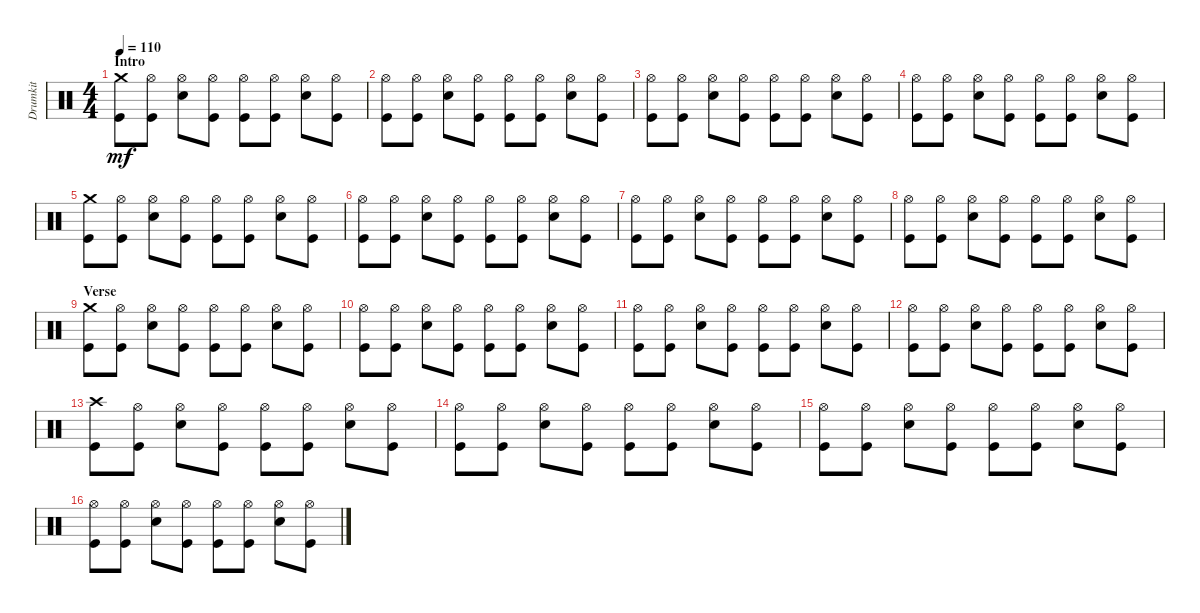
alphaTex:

\track ("Drumkit" "Drumkit") {instrument percussion}
\staff {score}
\articulation defaults
\ts (4 4)
\section ("" "Intro")
\tempo 110
\clef neutral
\ks c
("Kick (hit)" "Crash medium (hit)").8{dy mf} ("Kick (hit)" "Hi-Hat (open)").8 ("Hi-Hat (open)" "Snare (hit) 2").8 ("Kick (hit)" "Hi-Hat (open)").8 ("Kick (hit)" "Hi-Hat (open)").8 ("Kick (hit)" "Hi-Hat (open)").8 ("Hi-Hat (open)" "Snare (hit) 2").8 ("Kick (hit)" "Hi-Hat (open)").8 |
("Kick (hit)" "Hi-Hat (open)").8 ("Kick (hit)" "Hi-Hat (open)").8 ("Hi-Hat (open)" "Snare (hit) 2").8 ("Kick (hit)" "Hi-Hat (open)").8 ("Kick (hit)" "Hi-Hat (open)").8 ("Kick (hit)" "Hi-Hat (open)").8 ("Hi-Hat (open)" "Snare (hit) 2").8 ("Kick (hit)" "Hi-Hat (open)").8 |
("Kick (hit)" "Hi-Hat (open)").8 ("Kick (hit)" "Hi-Hat (open)").8 ("Hi-Hat (open)" "Snare (hit) 2").8 ("Kick (hit)" "Hi-Hat (open)").8 ("Kick (hit)" "Hi-Hat (open)").8 ("Kick (hit)" "Hi-Hat (open)").8 ("Hi-Hat (open)" "Snare (hit) 2").8 ("Kick (hit)" "Hi-Hat (open)").8 |
("Kick (hit)" "Hi-Hat (open)").8 ("Kick (hit)" "Hi-Hat (open)").8 ("Hi-Hat (open)" "Snare (hit) 2").8 ("Kick (hit)" "Hi-Hat (open)").8 ("Kick (hit)" "Hi-Hat (open)").8 ("Kick (hit)" "Hi-Hat (open)").8 ("Hi-Hat (open)" "Snare (hit) 2").8 ("Kick (hit)" "Hi-Hat (open)").8 |
("Kick (hit)" "Crash medium (hit)").8 ("Kick (hit)" "Hi-Hat (open)").8 ("Hi-Hat (open)" "Snare (hit) 2").8 ("Kick (hit)" "Hi-Hat (open)").8 ("Kick (hit)" "Hi-Hat (open)").8 ("Kick (hit)" "Hi-Hat (open)").8 ("Hi-Hat (open)" "Snare (hit) 2").8 ("Kick (hit)" "Hi-Hat (open)").8 |
("Kick (hit)" "Hi-Hat (open)").8 ("Kick (hit)" "Hi-Hat (open)").8 ("Hi-Hat (open)" "Snare (hit) 2").8 ("Kick (hit)" "Hi-Hat (open)").8 ("Kick (hit)" "Hi-Hat (open)").8 ("Kick (hit)" "Hi-Hat (open)").8 ("Hi-Hat (open)" "Snare (hit) 2").8 ("Kick (hit)" "Hi-Hat (open)").8 |
("Kick (hit)" "Hi-Hat (open)").8 ("Kick (hit)" "Hi-Hat (open)").8 ("Hi-Hat (open)" "Snare (hit) 2").8 ("Kick (hit)" "Hi-Hat (open)").8 ("Kick (hit)" "Hi-Hat (open)").8 ("Kick (hit)" "Hi-Hat (open)").8 ("Hi-Hat (open)" "Snare (hit) 2").8 ("Kick (hit)" "Hi-Hat (open)").8 |
("Kick (hit)" "Hi-Hat (open)").8 ("Kick (hit)" "Hi-Hat (open)").8 ("Hi-Hat (open)" "Snare (hit) 2").8 ("Kick (hit)" "Hi-Hat (open)").8 ("Kick (hit)" "Hi-Hat (open)").8 ("Kick (hit)" "Hi-Hat (open)").8 ("Hi-Hat (open)" "Snare (hit) 2").8 ("Kick (hit)" "Hi-Hat (open)").8 |
\section ("" "Verse")
("Kick (hit)" "Crash medium (hit)").8 ("Kick (hit)" "Hi-Hat (open)").8 ("Hi-Hat (open)" "Snare (hit) 2").8 ("Kick (hit)" "Hi-Hat (open)").8 ("Kick (hit)" "Hi-Hat (open)").8 ("Kick (hit)" "Hi-Hat (open)").8 ("Hi-Hat (open)" "Snare (hit) 2").8 ("Kick (hit)" "Hi-Hat (open)").8 |
("Kick (hit)" "Hi-Hat (open)").8 ("Kick (hit)" "Hi-Hat (open)").8 ("Hi-Hat (open)" "Snare (hit) 2").8 ("Kick (hit)" "Hi-Hat (open)").8 ("Kick (hit)" "Hi-Hat (open)").8 ("Kick (hit)" "Hi-Hat (open)").8 ("Hi-Hat (open)" "Snare (hit) 2").8 ("Kick (hit)" "Hi-Hat (open)").8 |
("Kick (hit)" "Hi-Hat (open)").8 ("Kick (hit)" "Hi-Hat (open)").8 ("Hi-Hat (open)" "Snare (hit) 2").8 ("Kick (hit)" "Hi-Hat (open)").8 ("Kick (hit)" "Hi-Hat (open)").8 ("Kick (hit)" "Hi-Hat (open)").8 ("Hi-Hat (open)" "Snare (hit) 2").8 ("Kick (hit)" "Hi-Hat (open)").8 |
("Kick (hit)" "Hi-Hat (open)").8 ("Kick (hit)" "Hi-Hat (open)").8 ("Hi-Hat (open)" "Snare (hit) 2").8 ("Kick (hit)" "Hi-Hat (open)").8 ("Kick (hit)" "Hi-Hat (open)").8 ("Kick (hit)" "Hi-Hat (open)").8 ("Hi-Hat (open)" "Snare (hit) 2").8 ("Kick (hit)" "Hi-Hat (open)").8 |
("Crash high (hit)" "Kick (hit)").8 ("Kick (hit)" "Hi-Hat (open)").8 ("Hi-Hat (open)" "Snare (hit) 2").8 ("Kick (hit)" "Hi-Hat (open)").8 ("Kick (hit)" "Hi-Hat (open)").8 ("Kick (hit)" "Hi-Hat (open)").8 ("Hi-Hat (open)" "Snare (hit) 2").8 ("Kick (hit)" "Hi-Hat (open)").8 |
("Kick (hit)" "Hi-Hat (open)").8 ("Kick (hit)" "Hi-Hat (open)").8 ("Hi-Hat (open)" "Snare (hit) 2").8 ("Kick (hit)" "Hi-Hat (open)").8 ("Kick (hit)" "Hi-Hat (open)").8 ("Kick (hit)" "Hi-Hat (open)").8 ("Hi-Hat (open)" "Snare (hit) 2").8 ("Kick (hit)" "Hi-Hat (open)").8 |
("Kick (hit)" "Hi-Hat (open)").8 ("Kick (hit)" "Hi-Hat (open)").8 ("Hi-Hat (open)" "Snare (hit) 2").8 ("Kick (hit)" "Hi-Hat (open)").8 ("Kick (hit)" "Hi-Hat (open)").8 ("Kick (hit)" "Hi-Hat (open)").8 ("Hi-Hat (open)" "Snare (hit) 2").8 ("Kick (hit)" "Hi-Hat (open)").8 |
("Kick (hit)" "Hi-Hat (open)").8 ("Kick (hit)" "Hi-Hat (open)").8 ("Hi-Hat (open)" "Snare (hit) 2").8 ("Kick (hit)" "Hi-Hat (open)").8 ("Kick (hit)" "Hi-Hat (open)").8 ("Kick (hit)" "Hi-Hat (open)").8 ("Hi-Hat (open)" "Snare (hit) 2").8 ("Kick (hit)" "Hi-Hat (open)").8
